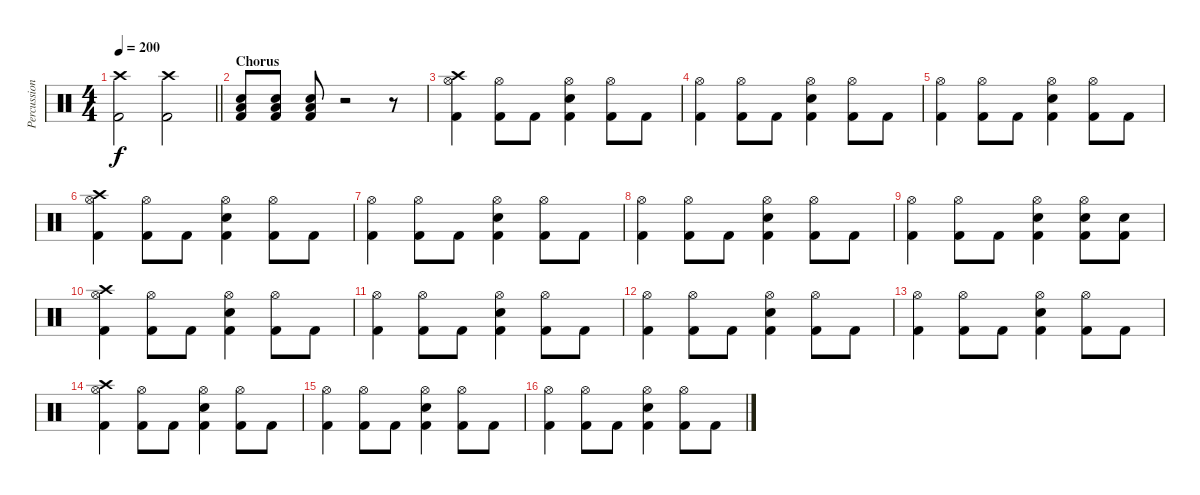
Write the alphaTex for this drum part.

\track ("Percussion" "Percussion") {instrument percussion}
\staff {score}
\articulation defaults
\ts (4 4)
\tempo 200
\clef neutral
\barLineRight lightlight
\ks c
("Crash high (hit)" "Kick (hit) 2").2{dy f} ("Crash high (hit)" "Kick (hit) 2").2 |
\section ("" "Chorus")
("Low Tom (hit)" "Snare (hit) 2" "Kick (hit) 2").8 ("Low Tom (hit)" "Snare (hit) 2" "Kick (hit) 2").8 ("Low Tom (hit)" "Snare (hit) 2" "Kick (hit) 2").8 r.2 r.8 |
("Crash high (hit)" "Hi-Hat (open)" "Kick (hit) 2").4 ("Hi-Hat (open)" "Kick (hit) 2").8 "Kick (hit) 2".8 ("Hi-Hat (open)" "Snare (hit) 2" "Kick (hit) 2").4 ("Hi-Hat (open)" "Kick (hit) 2").8 "Kick (hit) 2".8 |
("Hi-Hat (open)" "Kick (hit) 2").4 ("Hi-Hat (open)" "Kick (hit) 2").8 "Kick (hit) 2".8 ("Hi-Hat (open)" "Snare (hit) 2" "Kick (hit) 2").4 ("Hi-Hat (open)" "Kick (hit) 2").8 "Kick (hit) 2".8 |
("Hi-Hat (open)" "Kick (hit) 2").4 ("Hi-Hat (open)" "Kick (hit) 2").8 "Kick (hit) 2".8 ("Hi-Hat (open)" "Snare (hit) 2" "Kick (hit) 2").4 ("Hi-Hat (open)" "Kick (hit) 2").8 "Kick (hit) 2".8 |
("Crash high (hit)" "Hi-Hat (open)" "Kick (hit) 2").4 ("Hi-Hat (open)" "Kick (hit) 2").8 "Kick (hit) 2".8 ("Hi-Hat (open)" "Snare (hit) 2" "Kick (hit) 2").4 ("Hi-Hat (open)" "Kick (hit) 2").8 "Kick (hit) 2".8 |
("Hi-Hat (open)" "Kick (hit) 2").4 ("Hi-Hat (open)" "Kick (hit) 2").8 "Kick (hit) 2".8 ("Hi-Hat (open)" "Snare (hit) 2" "Kick (hit) 2").4 ("Hi-Hat (open)" "Kick (hit) 2").8 "Kick (hit) 2".8 |
("Hi-Hat (open)" "Kick (hit) 2").4 ("Hi-Hat (open)" "Kick (hit) 2").8 "Kick (hit) 2".8 ("Hi-Hat (open)" "Snare (hit) 2" "Kick (hit) 2").4 ("Hi-Hat (open)" "Kick (hit) 2").8 "Kick (hit) 2".8 |
("Hi-Hat (open)" "Kick (hit) 2").4 ("Hi-Hat (open)" "Kick (hit) 2").8 "Kick (hit) 2".8 ("Hi-Hat (open)" "Snare (hit) 2" "Kick (hit) 2").4 ("Hi-Hat (open)" "Snare (hit) 2" "Kick (hit) 2").8 ("Snare (hit) 2" "Kick (hit) 2").8 |
("Crash high (hit)" "Hi-Hat (open)" "Kick (hit) 2").4 ("Hi-Hat (open)" "Kick (hit) 2").8 "Kick (hit) 2".8 ("Hi-Hat (open)" "Snare (hit) 2" "Kick (hit) 2").4 ("Hi-Hat (open)" "Kick (hit) 2").8 "Kick (hit) 2".8 |
("Hi-Hat (open)" "Kick (hit) 2").4 ("Hi-Hat (open)" "Kick (hit) 2").8 "Kick (hit) 2".8 ("Hi-Hat (open)" "Snare (hit) 2" "Kick (hit) 2").4 ("Hi-Hat (open)" "Kick (hit) 2").8 "Kick (hit) 2".8 |
("Hi-Hat (open)" "Kick (hit) 2").4 ("Hi-Hat (open)" "Kick (hit) 2").8 "Kick (hit) 2".8 ("Hi-Hat (open)" "Snare (hit) 2" "Kick (hit) 2").4 ("Hi-Hat (open)" "Kick (hit) 2").8 "Kick (hit) 2".8 |
("Hi-Hat (open)" "Kick (hit) 2").4 ("Hi-Hat (open)" "Kick (hit) 2").8 "Kick (hit) 2".8 ("Hi-Hat (open)" "Snare (hit) 2" "Kick (hit) 2").4 ("Hi-Hat (open)" "Kick (hit) 2").8 "Kick (hit) 2".8 |
("Crash high (hit)" "Hi-Hat (open)" "Kick (hit) 2").4 ("Hi-Hat (open)" "Kick (hit) 2").8 "Kick (hit) 2".8 ("Hi-Hat (open)" "Snare (hit) 2" "Kick (hit) 2").4 ("Hi-Hat (open)" "Kick (hit) 2").8 "Kick (hit) 2".8 |
("Hi-Hat (open)" "Kick (hit) 2").4 ("Hi-Hat (open)" "Kick (hit) 2").8 "Kick (hit) 2".8 ("Hi-Hat (open)" "Snare (hit) 2" "Kick (hit) 2").4 ("Hi-Hat (open)" "Kick (hit) 2").8 "Kick (hit) 2".8 |
("Hi-Hat (open)" "Kick (hit) 2").4 ("Hi-Hat (open)" "Kick (hit) 2").8 "Kick (hit) 2".8 ("Hi-Hat (open)" "Snare (hit) 2" "Kick (hit) 2").4 ("Hi-Hat (open)" "Kick (hit) 2").8 "Kick (hit) 2".8
